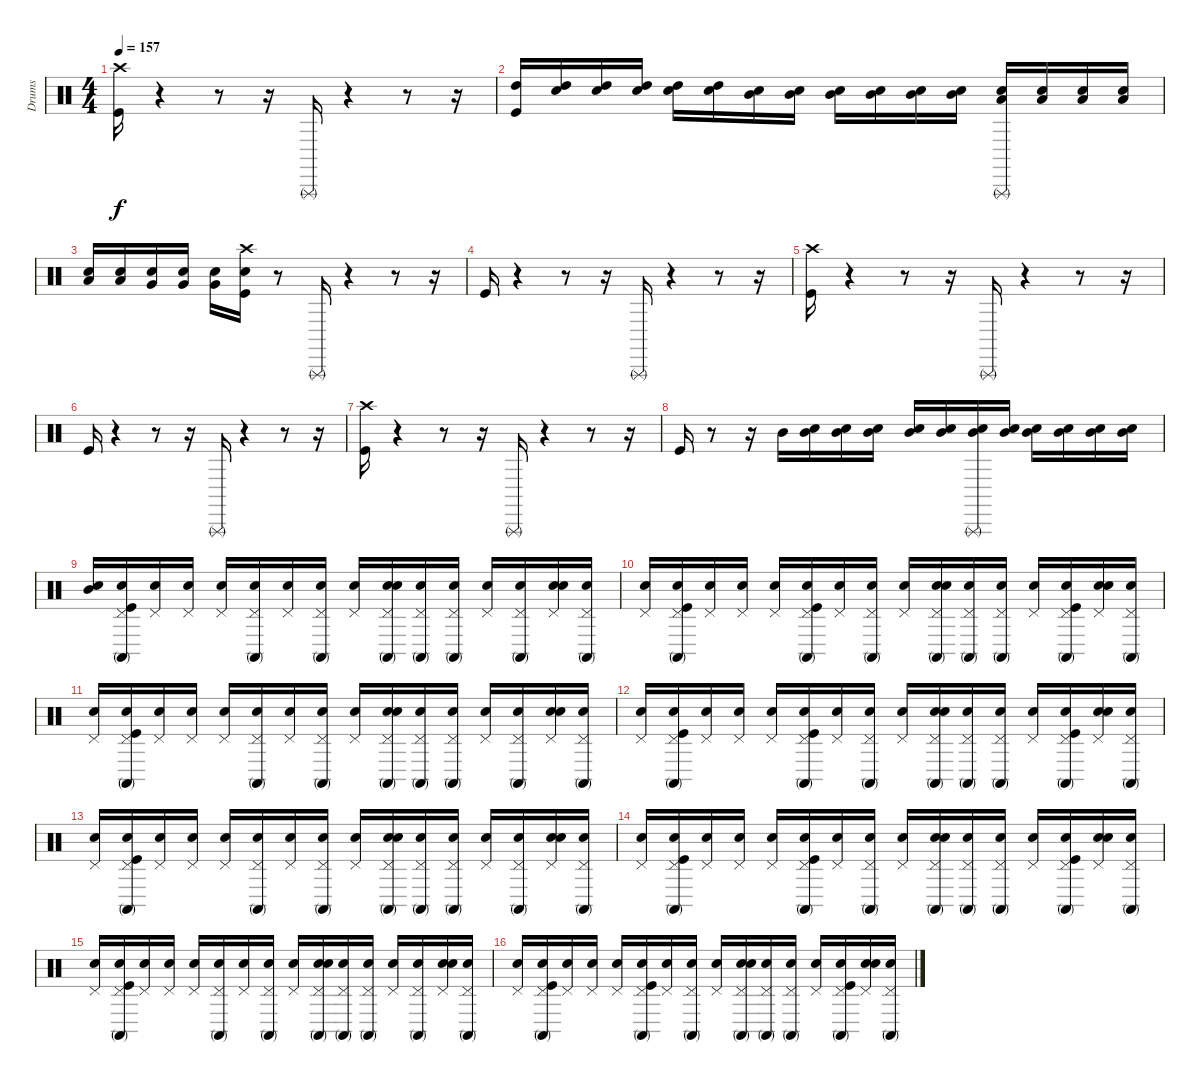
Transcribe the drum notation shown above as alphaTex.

\track ("Drums" "Drums") {instrument percussion}
\staff {score}
\articulation defaults
\ts (4 4)
\tempo 157
\clef neutral
\ks c
("Crash high (hit)" "Kick (hit)").16{dy f} r.4 r.8 r.16 "Triangle (rnute)".16 r.4 r.8 r.16 |
("Kick (hit)" "High Tom (hit)").16 ("Snare (hit)" "High Tom (hit)").16 ("Snare (hit)" "High Tom (hit)").16 ("Snare (hit)" "High Tom (hit)").16 ("Snare (hit)" "High Tom (hit)").16 ("Snare (hit)" "High Tom (hit)").16 ("Snare (hit)" "Mid Tom (hit)").16 ("Snare (hit)" "Mid Tom (hit)").16 ("Snare (hit)" "Mid Tom (hit)").16 ("Snare (hit)" "Mid Tom (hit)").16 ("Snare (hit)" "Mid Tom (hit)").16 ("Snare (hit)" "Mid Tom (hit)").16 ("Snare (hit)" "Low Tom (hit)" "Triangle (rnute)").16 ("Snare (hit)" "Low Tom (hit)").16 ("Snare (hit)" "Low Tom (hit)").16 ("Snare (hit)" "Low Tom (hit)").16 |
("Snare (hit)" "Low Tom (hit)").16 ("Snare (hit)" "Low Tom (hit)").16 ("Snare (hit)" "Very Low Tom (hit)").16 ("Snare (hit)" "Very Low Tom (hit)").16 ("Snare (hit)" "Very Low Tom (hit)").16 ("Snare (hit)" "Kick (hit)" "Crash high (hit)").16 r.8 "Triangle (rnute)".16 r.4 r.8 r.16 |
"Kick (hit)".16 r.4 r.8 r.16 "Triangle (rnute)".16 r.4 r.8 r.16 |
("Crash high (hit)" "Kick (hit)").16 r.4 r.8 r.16 "Triangle (rnute)".16 r.4 r.8 r.16 |
"Kick (hit)".16 r.4 r.8 r.16 "Triangle (rnute)".16 r.4 r.8 r.16 |
("Kick (hit)" "Crash high (hit)").16 r.4 r.8 r.16 "Triangle (rnute)".16 r.4 r.8 r.16 |
"Kick (hit)".16 r.8 r.16 "Mid Tom (hit)".16 ("Snare (hit)" "Mid Tom (hit)").16 ("Snare (hit)" "Mid Tom (hit)").16 ("Snare (hit)" "Mid Tom (hit)").16 ("Snare (hit)" "Mid Tom (hit)").16 ("Snare (hit)" "Mid Tom (hit)").16 ("Snare (hit)" "Mid Tom (hit)" "Triangle (rnute)").16 ("Snare (hit)" "Mid Tom (hit)").16 ("Snare (hit)" "Mid Tom (hit)").16 ("Snare (hit)" "Mid Tom (hit)").16 ("Snare (hit)" "Mid Tom (hit)").16 ("Snare (hit)" "Mid Tom (hit)").16 |
("Snare (hit)" "Mid Tom (hit)").16 ("Snare (hit)" "Kick (hit)" "Pedal Hi-Hat (hit)" "Conga high (mute)").16 ("Snare (hit)" "Pedal Hi-Hat (hit)").16 ("Snare (hit)" "Pedal Hi-Hat (hit)").16 ("Snare (hit)" "Pedal Hi-Hat (hit)").16 ("Snare (hit)" "Conga high (mute)" "Pedal Hi-Hat (hit)").16 ("Snare (hit)" "Pedal Hi-Hat (hit)").16 ("Snare (hit)" "Conga high (mute)" "Pedal Hi-Hat (hit)").16 ("Snare (hit)" "Pedal Hi-Hat (hit)").16 ("Snare (hit)" "Snare (hit) 2" "Pedal Hi-Hat (hit)" "Conga high (mute)").16 ("Snare (hit)" "Pedal Hi-Hat (hit)" "Conga high (mute)").16 ("Snare (hit)" "Pedal Hi-Hat (hit)" "Conga high (mute)").16 ("Snare (hit)" "Pedal Hi-Hat (hit)").16 ("Snare (hit)" "Pedal Hi-Hat (hit)" "Conga high (mute)").16 ("Snare (hit)" "Pedal Hi-Hat (hit)" "Snare (hit) 2").16 ("Snare (hit)" "Conga high (mute)" "Pedal Hi-Hat (hit)").16 |
("Snare (hit)" "Pedal Hi-Hat (hit)").16 ("Snare (hit)" "Pedal Hi-Hat (hit)" "Kick (hit)" "Conga high (mute)").16 ("Snare (hit)" "Pedal Hi-Hat (hit)").16 ("Snare (hit)" "Pedal Hi-Hat (hit)").16 ("Snare (hit)" "Pedal Hi-Hat (hit)").16 ("Snare (hit)" "Kick (hit)" "Conga high (mute)" "Pedal Hi-Hat (hit)").16 ("Snare (hit)" "Pedal Hi-Hat (hit)").16 ("Snare (hit)" "Pedal Hi-Hat (hit)" "Conga high (mute)").16 ("Snare (hit)" "Pedal Hi-Hat (hit)").16 ("Snare (hit)" "Snare (hit) 2" "Pedal Hi-Hat (hit)" "Conga high (mute)").16 ("Snare (hit)" "Conga high (mute)" "Pedal Hi-Hat (hit)").16 ("Snare (hit)" "Pedal Hi-Hat (hit)" "Conga high (mute)").16 ("Snare (hit)" "Pedal Hi-Hat (hit)").16 ("Snare (hit)" "Kick (hit)" "Pedal Hi-Hat (hit)" "Conga high (mute)").16 ("Snare (hit)" "Pedal Hi-Hat (hit)" "Snare (hit) 2").16 ("Snare (hit)" "Conga high (mute)" "Pedal Hi-Hat (hit)").16 |
("Snare (hit)" "Pedal Hi-Hat (hit)").16 ("Snare (hit)" "Kick (hit)" "Pedal Hi-Hat (hit)" "Conga high (mute)").16 ("Snare (hit)" "Pedal Hi-Hat (hit)").16 ("Snare (hit)" "Pedal Hi-Hat (hit)").16 ("Snare (hit)" "Pedal Hi-Hat (hit)").16 ("Snare (hit)" "Conga high (mute)" "Pedal Hi-Hat (hit)").16 ("Snare (hit)" "Pedal Hi-Hat (hit)").16 ("Snare (hit)" "Conga high (mute)" "Pedal Hi-Hat (hit)").16 ("Snare (hit)" "Pedal Hi-Hat (hit)").16 ("Snare (hit)" "Pedal Hi-Hat (hit)" "Snare (hit) 2" "Conga high (mute)").16 ("Snare (hit)" "Conga high (mute)" "Pedal Hi-Hat (hit)").16 ("Snare (hit)" "Pedal Hi-Hat (hit)" "Conga high (mute)").16 ("Snare (hit)" "Pedal Hi-Hat (hit)").16 ("Snare (hit)" "Pedal Hi-Hat (hit)" "Conga high (mute)").16 ("Snare (hit)" "Pedal Hi-Hat (hit)" "Snare (hit) 2").16 ("Snare (hit)" "Conga high (mute)" "Pedal Hi-Hat (hit)").16 |
("Snare (hit)" "Pedal Hi-Hat (hit)").16 ("Snare (hit)" "Pedal Hi-Hat (hit)" "Conga high (mute)" "Kick (hit)").16 ("Snare (hit)" "Pedal Hi-Hat (hit)").16 ("Snare (hit)" "Pedal Hi-Hat (hit)").16 ("Snare (hit)" "Pedal Hi-Hat (hit)").16 ("Snare (hit)" "Pedal Hi-Hat (hit)" "Kick (hit)" "Conga high (mute)").16 ("Snare (hit)" "Pedal Hi-Hat (hit)").16 ("Snare (hit)" "Pedal Hi-Hat (hit)" "Conga high (mute)").16 ("Snare (hit)" "Pedal Hi-Hat (hit)").16 ("Snare (hit)" "Snare (hit) 2" "Pedal Hi-Hat (hit)" "Conga high (mute)").16 ("Snare (hit)" "Conga high (mute)" "Pedal Hi-Hat (hit)").16 ("Snare (hit)" "Conga high (mute)" "Pedal Hi-Hat (hit)").16 ("Snare (hit)" "Pedal Hi-Hat (hit)").16 ("Snare (hit)" "Pedal Hi-Hat (hit)" "Conga high (mute)" "Kick (hit)").16 ("Snare (hit)" "Snare (hit) 2" "Pedal Hi-Hat (hit)").16 ("Snare (hit)" "Pedal Hi-Hat (hit)" "Conga high (mute)").16 |
("Snare (hit)" "Pedal Hi-Hat (hit)").16 ("Snare (hit)" "Pedal Hi-Hat (hit)" "Conga high (mute)" "Kick (hit)").16 ("Snare (hit)" "Pedal Hi-Hat (hit)").16 ("Snare (hit)" "Pedal Hi-Hat (hit)").16 ("Snare (hit)" "Pedal Hi-Hat (hit)").16 ("Snare (hit)" "Conga high (mute)" "Pedal Hi-Hat (hit)").16 ("Snare (hit)" "Pedal Hi-Hat (hit)").16 ("Snare (hit)" "Pedal Hi-Hat (hit)" "Conga high (mute)").16 ("Snare (hit)" "Pedal Hi-Hat (hit)").16 ("Snare (hit)" "Snare (hit) 2" "Pedal Hi-Hat (hit)" "Conga high (mute)").16 ("Snare (hit)" "Conga high (mute)" "Pedal Hi-Hat (hit)").16 ("Snare (hit)" "Conga high (mute)" "Pedal Hi-Hat (hit)").16 ("Snare (hit)" "Pedal Hi-Hat (hit)").16 ("Snare (hit)" "Conga high (mute)" "Pedal Hi-Hat (hit)").16 ("Snare (hit)" "Pedal Hi-Hat (hit)" "Snare (hit) 2").16 ("Snare (hit)" "Conga high (mute)" "Pedal Hi-Hat (hit)").16 |
("Snare (hit)" "Pedal Hi-Hat (hit)").16 ("Snare (hit)" "Conga high (mute)" "Pedal Hi-Hat (hit)" "Kick (hit)").16 ("Snare (hit)" "Pedal Hi-Hat (hit)").16 ("Snare (hit)" "Pedal Hi-Hat (hit)").16 ("Snare (hit)" "Pedal Hi-Hat (hit)").16 ("Snare (hit)" "Conga high (mute)" "Pedal Hi-Hat (hit)" "Kick (hit)").16 ("Snare (hit)" "Pedal Hi-Hat (hit)").16 ("Snare (hit)" "Conga high (mute)" "Pedal Hi-Hat (hit)").16 ("Snare (hit)" "Pedal Hi-Hat (hit)").16 ("Snare (hit)" "Conga high (mute)" "Snare (hit) 2" "Pedal Hi-Hat (hit)").16 ("Snare (hit)" "Conga high (mute)" "Pedal Hi-Hat (hit)").16 ("Snare (hit)" "Conga high (mute)" "Pedal Hi-Hat (hit)").16 ("Snare (hit)" "Pedal Hi-Hat (hit)").16 ("Snare (hit)" "Conga high (mute)" "Kick (hit)" "Pedal Hi-Hat (hit)").16 ("Snare (hit)" "Snare (hit) 2" "Pedal Hi-Hat (hit)").16 ("Snare (hit)" "Pedal Hi-Hat (hit)" "Conga high (mute)").16 |
("Snare (hit)" "Pedal Hi-Hat (hit)").16 ("Snare (hit)" "Conga high (mute)" "Pedal Hi-Hat (hit)" "Kick (hit)").16 ("Snare (hit)" "Pedal Hi-Hat (hit)").16 ("Snare (hit)" "Pedal Hi-Hat (hit)").16 ("Snare (hit)" "Pedal Hi-Hat (hit)").16 ("Snare (hit)" "Pedal Hi-Hat (hit)" "Conga high (mute)").16 ("Snare (hit)" "Pedal Hi-Hat (hit)").16 ("Snare (hit)" "Pedal Hi-Hat (hit)" "Conga high (mute)").16 ("Snare (hit)" "Pedal Hi-Hat (hit)").16 ("Snare (hit)" "Snare (hit) 2" "Pedal Hi-Hat (hit)" "Conga high (mute)").16 ("Snare (hit)" "Pedal Hi-Hat (hit)" "Conga high (mute)").16 ("Snare (hit)" "Pedal Hi-Hat (hit)" "Conga high (mute)").16 ("Snare (hit)" "Pedal Hi-Hat (hit)").16 ("Snare (hit)" "Pedal Hi-Hat (hit)" "Conga high (mute)").16 ("Snare (hit)" "Pedal Hi-Hat (hit)" "Snare (hit) 2").16 ("Snare (hit)" "Conga high (mute)" "Pedal Hi-Hat (hit)").16 |
("Snare (hit)" "Pedal Hi-Hat (hit)").16 ("Snare (hit)" "Conga high (mute)" "Kick (hit)" "Pedal Hi-Hat (hit)").16 ("Snare (hit)" "Pedal Hi-Hat (hit)").16 ("Snare (hit)" "Pedal Hi-Hat (hit)").16 ("Snare (hit)" "Pedal Hi-Hat (hit)").16 ("Snare (hit)" "Pedal Hi-Hat (hit)" "Conga high (mute)" "Kick (hit)").16 ("Snare (hit)" "Pedal Hi-Hat (hit)").16 ("Snare (hit)" "Pedal Hi-Hat (hit)" "Conga high (mute)").16 ("Snare (hit)" "Pedal Hi-Hat (hit)").16 ("Snare (hit)" "Conga high (mute)" "Pedal Hi-Hat (hit)" "Snare (hit) 2").16 ("Snare (hit)" "Conga high (mute)" "Pedal Hi-Hat (hit)").16 ("Snare (hit)" "Pedal Hi-Hat (hit)" "Conga high (mute)").16 ("Snare (hit)" "Pedal Hi-Hat (hit)").16 ("Snare (hit)" "Kick (hit)" "Pedal Hi-Hat (hit)" "Conga high (mute)").16 ("Snare (hit)" "Pedal Hi-Hat (hit)" "Snare (hit) 2").16 ("Snare (hit)" "Conga high (mute)" "Pedal Hi-Hat (hit)").16
